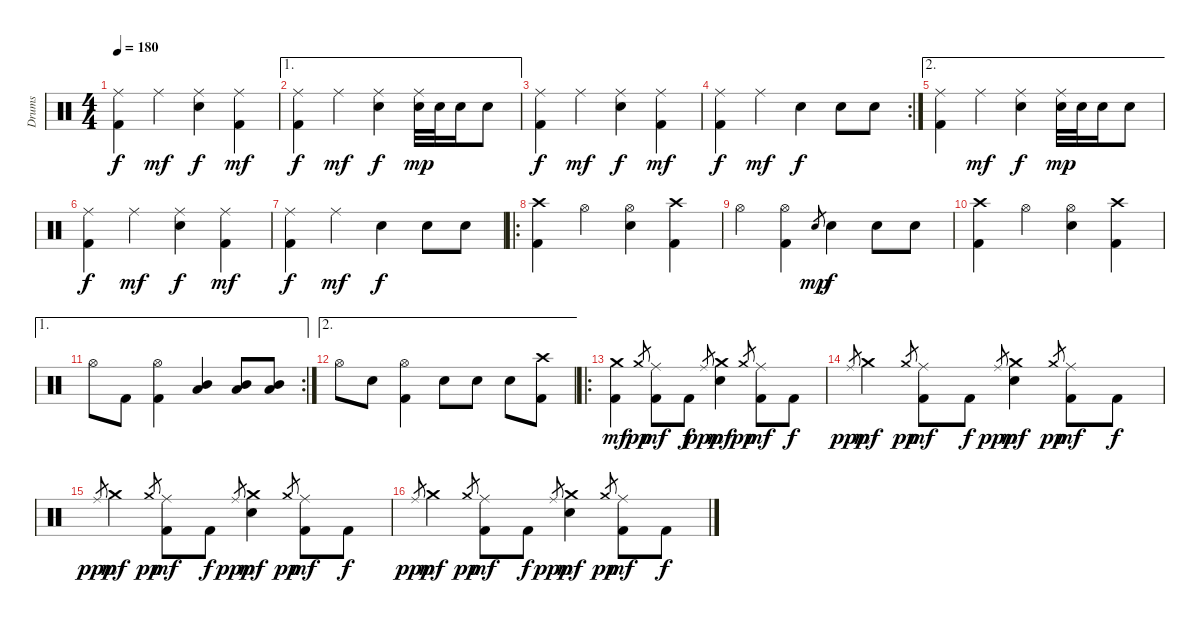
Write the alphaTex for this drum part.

\track ("Drums" "Drums") {instrument percussion}
\staff {score}
\articulation defaults
\ts (4 4)
\tempo 180
\clef neutral
\ks c
("Ride (middle)" "Kick (hit) 2").4{dy f} "Ride (middle)".4{dy mf} ("Ride (middle)" "Snare (hit) 2").4{dy f} ("Ride (middle)" "Kick (hit) 2").4{dy mf} |
\ae 1
("Ride (middle)" "Kick (hit) 2").4{dy f} "Ride (middle)".4{dy mf} ("Ride (middle)" "Snare (hit) 2").4{dy f} ("Ride (middle)" "Snare (hit) 2").32{dy mp} "Snare (hit) 2".32 "Snare (hit) 2".16 "Snare (hit) 2".8 |
("Ride (middle)" "Kick (hit) 2").4{dy f} "Ride (middle)".4{dy mf} ("Ride (middle)" "Snare (hit) 2").4{dy f} ("Ride (middle)" "Kick (hit) 2").4{dy mf} |
\rc 2
("Ride (middle)" "Kick (hit) 2").4{dy f} "Ride (middle)".4{dy mf} "Snare (hit) 2".4{dy f} "Snare (hit) 2".8 "Snare (hit) 2".8 |
\ae 2
("Ride (middle)" "Kick (hit) 2").4 "Ride (middle)".4{dy mf} ("Ride (middle)" "Snare (hit) 2").4{dy f} ("Ride (middle)" "Snare (hit) 2").32{dy mp} "Snare (hit) 2".32 "Snare (hit) 2".16 "Snare (hit) 2".8 |
("Ride (middle)" "Kick (hit) 2").4{dy f} "Ride (middle)".4{dy mf} ("Ride (middle)" "Snare (hit) 2").4{dy f} ("Ride (middle)" "Kick (hit) 2").4{dy mf} |
("Ride (middle)" "Kick (hit) 2").4{dy f} "Ride (middle)".4{dy mf} "Snare (hit) 2".4{dy f} "Snare (hit) 2".8 "Snare (hit) 2".8 |
\ro
("Crash high (hit)" "Kick (hit) 2").4 "Hi-Hat (open)".4 ("Hi-Hat (open)" "Snare (hit) 2").4 ("Crash high (hit)" "Kick (hit) 2").4 |
"Hi-Hat (open)".4 ("Hi-Hat (open)" "Kick (hit) 2").4 "Snare (hit) 2".8{gr dy mp} "Snare (hit) 2".4{dy f} "Snare (hit) 2".8 "Snare (hit) 2".8 |
("Crash high (hit)" "Kick (hit) 2").4 "Hi-Hat (open)".4 ("Hi-Hat (open)" "Snare (hit) 2").4 ("Crash high (hit)" "Kick (hit) 2").4 |
\ae 1
\rc 2 "Hi-Hat (open)".8 "Kick (hit) 2".8
("Hi-Hat (open)" "Kick (hit) 2").4 ("Mid Tom (hit)" "Low Floor Tom (hit)").4 ("Mid Tom (hit)" "Low Floor Tom (hit)").8 ("Mid Tom (hit)" "Low Floor Tom (hit)").8 |
\ae 2 "Hi-Hat (open)".8 "Snare (hit) 2".8
("Hi-Hat (open)" "Kick (hit) 2").4 "Snare (hit) 2".8 "Snare (hit) 2".8 "Snare (hit) 2".8 ("Crash high (hit)" "Kick (hit) 2").8 |
\ro
("Crash medium (hit)" "Kick (hit) 2").4{dy mf} "Crash medium (hit)".8{gr dy pp} ("Ride (middle)" "Kick (hit) 2").8{dy mf} "Kick (hit) 2".8{dy f} "Ride (middle)".8{gr dy ppp} ("Crash medium (hit)" "Snare (hit) 2").4{dy mf} "Crash medium (hit)".8{gr dy pp} ("Ride (middle)" "Kick (hit) 2").8{dy mf} "Kick (hit) 2".8{dy f} |
"Ride (middle)".8{gr dy ppp} "Crash medium (hit)".4{dy mf} "Crash medium (hit)".8{gr dy pp} ("Ride (middle)" "Kick (hit) 2").8{dy mf} "Kick (hit) 2".8{dy f} "Ride (middle)".8{gr dy ppp} ("Crash medium (hit)" "Snare (hit) 2").4{dy mf} "Crash medium (hit)".8{gr dy pp} ("Ride (middle)" "Kick (hit) 2").8{dy mf} "Kick (hit) 2".8{dy f} |
"Ride (middle)".8{gr dy ppp} "Crash medium (hit)".4{dy mf} "Crash medium (hit)".8{gr dy pp} ("Ride (middle)" "Kick (hit) 2").8{dy mf} "Kick (hit) 2".8{dy f} "Ride (middle)".8{gr dy ppp} ("Crash medium (hit)" "Snare (hit) 2").4{dy mf} "Crash medium (hit)".8{gr dy pp} ("Ride (middle)" "Kick (hit) 2").8{dy mf} "Kick (hit) 2".8{dy f} |
"Ride (middle)".8{gr dy ppp} "Crash medium (hit)".4{dy mf} "Crash medium (hit)".8{gr dy pp} ("Ride (middle)" "Kick (hit) 2").8{dy mf} "Kick (hit) 2".8{dy f} "Ride (middle)".8{gr dy ppp} ("Crash medium (hit)" "Snare (hit) 2").4{dy mf} "Crash medium (hit)".8{gr dy pp} ("Ride (middle)" "Kick (hit) 2").8{dy mf} "Kick (hit) 2".8{dy f}
